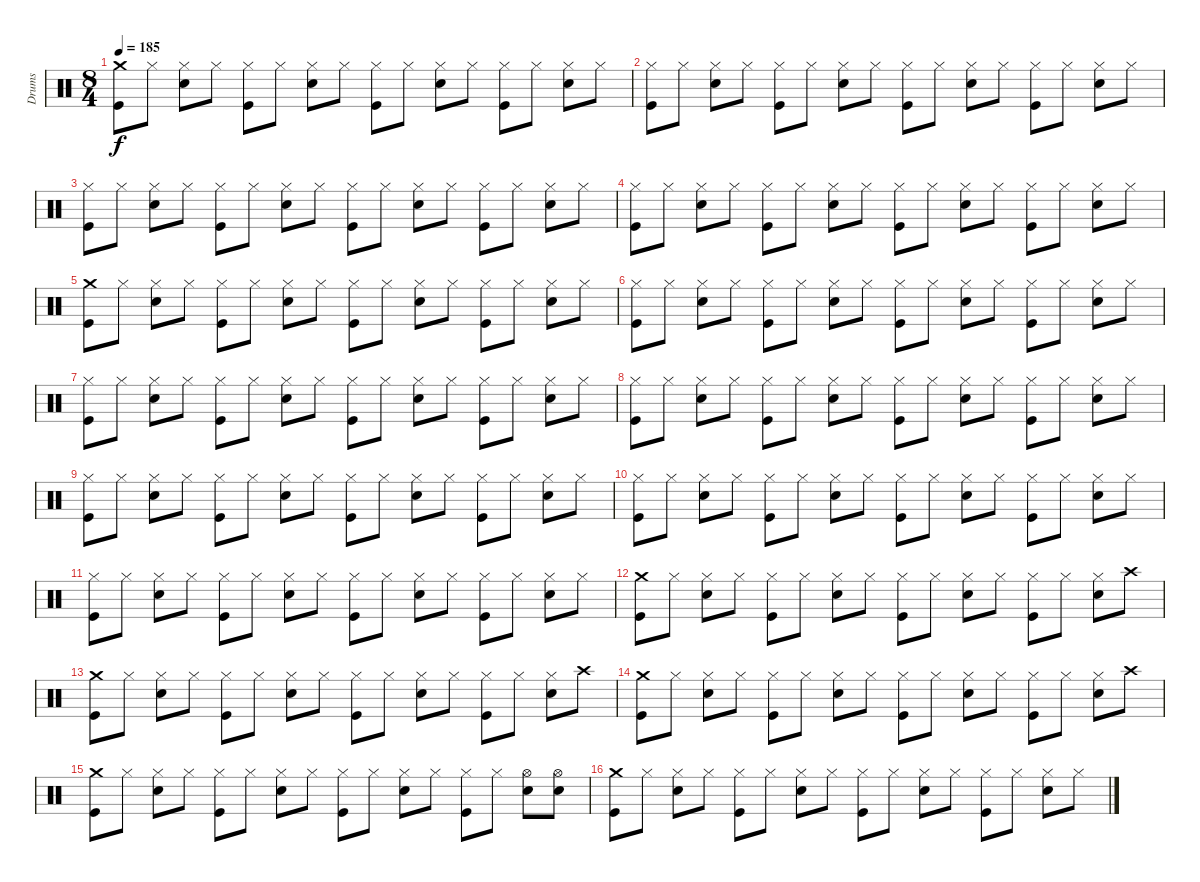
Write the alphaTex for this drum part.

\track ("Drums" "Drums") {instrument percussion}
\staff {score}
\articulation defaults
\ts (8 4)
\tempo 185
\clef neutral
\ks c
("Crash medium (hit)" "Kick (hit)").8{dy f} "Hi-Hat (closed)".8 ("Hi-Hat (closed)" "Snare (hit) 2").8 "Hi-Hat (closed)".8 ("Hi-Hat (closed)" "Kick (hit)").8 "Hi-Hat (closed)".8 ("Hi-Hat (closed)" "Snare (hit) 2").8 "Hi-Hat (closed)".8 ("Hi-Hat (closed)" "Kick (hit)").8 "Hi-Hat (closed)".8 ("Hi-Hat (closed)" "Snare (hit) 2").8 "Hi-Hat (closed)".8 ("Hi-Hat (closed)" "Kick (hit)").8 "Hi-Hat (closed)".8 ("Hi-Hat (closed)" "Snare (hit) 2").8 "Hi-Hat (closed)".8 |
("Hi-Hat (closed)" "Kick (hit)").8 "Hi-Hat (closed)".8 ("Hi-Hat (closed)" "Snare (hit) 2").8 "Hi-Hat (closed)".8 ("Hi-Hat (closed)" "Kick (hit)").8 "Hi-Hat (closed)".8 ("Hi-Hat (closed)" "Snare (hit) 2").8 "Hi-Hat (closed)".8 ("Hi-Hat (closed)" "Kick (hit)").8 "Hi-Hat (closed)".8 ("Hi-Hat (closed)" "Snare (hit) 2").8 "Hi-Hat (closed)".8 ("Hi-Hat (closed)" "Kick (hit)").8 "Hi-Hat (closed)".8 ("Hi-Hat (closed)" "Snare (hit) 2").8 "Hi-Hat (closed)".8 |
("Hi-Hat (closed)" "Kick (hit)").8 "Hi-Hat (closed)".8 ("Hi-Hat (closed)" "Snare (hit) 2").8 "Hi-Hat (closed)".8 ("Hi-Hat (closed)" "Kick (hit)").8 "Hi-Hat (closed)".8 ("Hi-Hat (closed)" "Snare (hit) 2").8 "Hi-Hat (closed)".8 ("Hi-Hat (closed)" "Kick (hit)").8 "Hi-Hat (closed)".8 ("Hi-Hat (closed)" "Snare (hit) 2").8 "Hi-Hat (closed)".8 ("Hi-Hat (closed)" "Kick (hit)").8 "Hi-Hat (closed)".8 ("Hi-Hat (closed)" "Snare (hit) 2").8 "Hi-Hat (closed)".8 |
("Hi-Hat (closed)" "Kick (hit)").8 "Hi-Hat (closed)".8 ("Hi-Hat (closed)" "Snare (hit) 2").8 "Hi-Hat (closed)".8 ("Hi-Hat (closed)" "Kick (hit)").8 "Hi-Hat (closed)".8 ("Hi-Hat (closed)" "Snare (hit) 2").8 "Hi-Hat (closed)".8 ("Hi-Hat (closed)" "Kick (hit)").8 "Hi-Hat (closed)".8 ("Hi-Hat (closed)" "Snare (hit) 2").8 "Hi-Hat (closed)".8 ("Hi-Hat (closed)" "Kick (hit)").8 "Hi-Hat (closed)".8 ("Hi-Hat (closed)" "Snare (hit) 2").8 "Hi-Hat (closed)".8 |
("Crash medium (hit)" "Kick (hit)").8 "Hi-Hat (closed)".8 ("Hi-Hat (closed)" "Snare (hit) 2").8 "Hi-Hat (closed)".8 ("Hi-Hat (closed)" "Kick (hit)").8 "Hi-Hat (closed)".8 ("Hi-Hat (closed)" "Snare (hit) 2").8 "Hi-Hat (closed)".8 ("Hi-Hat (closed)" "Kick (hit)").8 "Hi-Hat (closed)".8 ("Hi-Hat (closed)" "Snare (hit) 2").8 "Hi-Hat (closed)".8 ("Hi-Hat (closed)" "Kick (hit)").8 "Hi-Hat (closed)".8 ("Hi-Hat (closed)" "Snare (hit) 2").8 "Hi-Hat (closed)".8 |
("Hi-Hat (closed)" "Kick (hit)").8 "Hi-Hat (closed)".8 ("Hi-Hat (closed)" "Snare (hit) 2").8 "Hi-Hat (closed)".8 ("Hi-Hat (closed)" "Kick (hit)").8 "Hi-Hat (closed)".8 ("Hi-Hat (closed)" "Snare (hit) 2").8 "Hi-Hat (closed)".8 ("Hi-Hat (closed)" "Kick (hit)").8 "Hi-Hat (closed)".8 ("Hi-Hat (closed)" "Snare (hit) 2").8 "Hi-Hat (closed)".8 ("Hi-Hat (closed)" "Kick (hit)").8 "Hi-Hat (closed)".8 ("Hi-Hat (closed)" "Snare (hit) 2").8 "Hi-Hat (closed)".8 |
("Hi-Hat (closed)" "Kick (hit)").8 "Hi-Hat (closed)".8 ("Hi-Hat (closed)" "Snare (hit) 2").8 "Hi-Hat (closed)".8 ("Hi-Hat (closed)" "Kick (hit)").8 "Hi-Hat (closed)".8 ("Hi-Hat (closed)" "Snare (hit) 2").8 "Hi-Hat (closed)".8 ("Hi-Hat (closed)" "Kick (hit)").8 "Hi-Hat (closed)".8 ("Hi-Hat (closed)" "Snare (hit) 2").8 "Hi-Hat (closed)".8 ("Hi-Hat (closed)" "Kick (hit)").8 "Hi-Hat (closed)".8 ("Hi-Hat (closed)" "Snare (hit) 2").8 "Hi-Hat (closed)".8 |
("Hi-Hat (closed)" "Kick (hit)").8 "Hi-Hat (closed)".8 ("Hi-Hat (closed)" "Snare (hit) 2").8 "Hi-Hat (closed)".8 ("Hi-Hat (closed)" "Kick (hit)").8 "Hi-Hat (closed)".8 ("Hi-Hat (closed)" "Snare (hit) 2").8 "Hi-Hat (closed)".8 ("Hi-Hat (closed)" "Kick (hit)").8 "Hi-Hat (closed)".8 ("Hi-Hat (closed)" "Snare (hit) 2").8 "Hi-Hat (closed)".8 ("Hi-Hat (closed)" "Kick (hit)").8 "Hi-Hat (closed)".8 ("Hi-Hat (closed)" "Snare (hit) 2").8 "Hi-Hat (closed)".8 |
("Hi-Hat (closed)" "Kick (hit)").8 "Hi-Hat (closed)".8 ("Hi-Hat (closed)" "Snare (hit) 2").8 "Hi-Hat (closed)".8 ("Hi-Hat (closed)" "Kick (hit)").8 "Hi-Hat (closed)".8 ("Hi-Hat (closed)" "Snare (hit) 2").8 "Hi-Hat (closed)".8 ("Hi-Hat (closed)" "Kick (hit)").8 "Hi-Hat (closed)".8 ("Hi-Hat (closed)" "Snare (hit) 2").8 "Hi-Hat (closed)".8 ("Hi-Hat (closed)" "Kick (hit)").8 "Hi-Hat (closed)".8 ("Hi-Hat (closed)" "Snare (hit) 2").8 "Hi-Hat (closed)".8 |
("Hi-Hat (closed)" "Kick (hit)").8 "Hi-Hat (closed)".8 ("Hi-Hat (closed)" "Snare (hit) 2").8 "Hi-Hat (closed)".8 ("Hi-Hat (closed)" "Kick (hit)").8 "Hi-Hat (closed)".8 ("Hi-Hat (closed)" "Snare (hit) 2").8 "Hi-Hat (closed)".8 ("Hi-Hat (closed)" "Kick (hit)").8 "Hi-Hat (closed)".8 ("Hi-Hat (closed)" "Snare (hit) 2").8 "Hi-Hat (closed)".8 ("Hi-Hat (closed)" "Kick (hit)").8 "Hi-Hat (closed)".8 ("Hi-Hat (closed)" "Snare (hit) 2").8 "Hi-Hat (closed)".8 |
("Hi-Hat (closed)" "Kick (hit)").8 "Hi-Hat (closed)".8 ("Hi-Hat (closed)" "Snare (hit) 2").8 "Hi-Hat (closed)".8 ("Hi-Hat (closed)" "Kick (hit)").8 "Hi-Hat (closed)".8 ("Hi-Hat (closed)" "Snare (hit) 2").8 "Hi-Hat (closed)".8 ("Hi-Hat (closed)" "Kick (hit)").8 "Hi-Hat (closed)".8 ("Hi-Hat (closed)" "Snare (hit) 2").8 "Hi-Hat (closed)".8 ("Hi-Hat (closed)" "Kick (hit)").8 "Hi-Hat (closed)".8 ("Hi-Hat (closed)" "Snare (hit) 2").8 "Hi-Hat (closed)".8 |
("Crash medium (hit)" "Kick (hit)").8 "Hi-Hat (closed)".8 ("Hi-Hat (closed)" "Snare (hit) 2").8 "Hi-Hat (closed)".8 ("Hi-Hat (closed)" "Kick (hit)").8 "Hi-Hat (closed)".8 ("Hi-Hat (closed)" "Snare (hit) 2").8 "Hi-Hat (closed)".8 ("Hi-Hat (closed)" "Kick (hit)").8 "Hi-Hat (closed)".8 ("Hi-Hat (closed)" "Snare (hit) 2").8 "Hi-Hat (closed)".8 ("Hi-Hat (closed)" "Kick (hit)").8 "Hi-Hat (closed)".8 ("Hi-Hat (closed)" "Snare (hit) 2").8 "Crash high (hit)".8 |
("Crash medium (hit)" "Kick (hit)").8 "Hi-Hat (closed)".8 ("Hi-Hat (closed)" "Snare (hit) 2").8 "Hi-Hat (closed)".8 ("Hi-Hat (closed)" "Kick (hit)").8 "Hi-Hat (closed)".8 ("Hi-Hat (closed)" "Snare (hit) 2").8 "Hi-Hat (closed)".8 ("Hi-Hat (closed)" "Kick (hit)").8 "Hi-Hat (closed)".8 ("Hi-Hat (closed)" "Snare (hit) 2").8 "Hi-Hat (closed)".8 ("Hi-Hat (closed)" "Kick (hit)").8 "Hi-Hat (closed)".8 ("Hi-Hat (closed)" "Snare (hit) 2").8 "Crash high (hit)".8 |
("Crash medium (hit)" "Kick (hit)").8 "Hi-Hat (closed)".8 ("Hi-Hat (closed)" "Snare (hit) 2").8 "Hi-Hat (closed)".8 ("Hi-Hat (closed)" "Kick (hit)").8 "Hi-Hat (closed)".8 ("Hi-Hat (closed)" "Snare (hit) 2").8 "Hi-Hat (closed)".8 ("Hi-Hat (closed)" "Kick (hit)").8 "Hi-Hat (closed)".8 ("Hi-Hat (closed)" "Snare (hit) 2").8 "Hi-Hat (closed)".8 ("Hi-Hat (closed)" "Kick (hit)").8 "Hi-Hat (closed)".8 ("Hi-Hat (closed)" "Snare (hit) 2").8 "Crash high (hit)".8 |
("Crash medium (hit)" "Kick (hit)").8 "Hi-Hat (closed)".8 ("Hi-Hat (closed)" "Snare (hit) 2").8 "Hi-Hat (closed)".8 ("Hi-Hat (closed)" "Kick (hit)").8 "Hi-Hat (closed)".8 ("Hi-Hat (closed)" "Snare (hit) 2").8 "Hi-Hat (closed)".8 ("Hi-Hat (closed)" "Kick (hit)").8 "Hi-Hat (closed)".8 ("Hi-Hat (closed)" "Snare (hit) 2").8 "Hi-Hat (closed)".8 ("Hi-Hat (closed)" "Kick (hit)").8 "Hi-Hat (closed)".8 ("Hi-Hat (open)" "Snare (hit) 2").8 ("Hi-Hat (open)" "Snare (hit) 2").8 |
("Crash medium (hit)" "Kick (hit)").8 "Hi-Hat (closed)".8 ("Hi-Hat (closed)" "Snare (hit) 2").8 "Hi-Hat (closed)".8 ("Hi-Hat (closed)" "Kick (hit)").8 "Hi-Hat (closed)".8 ("Hi-Hat (closed)" "Snare (hit) 2").8 "Hi-Hat (closed)".8 ("Hi-Hat (closed)" "Kick (hit)").8 "Hi-Hat (closed)".8 ("Hi-Hat (closed)" "Snare (hit) 2").8 "Hi-Hat (closed)".8 ("Hi-Hat (closed)" "Kick (hit)").8 "Hi-Hat (closed)".8 ("Hi-Hat (closed)" "Snare (hit) 2").8 "Hi-Hat (closed)".8
